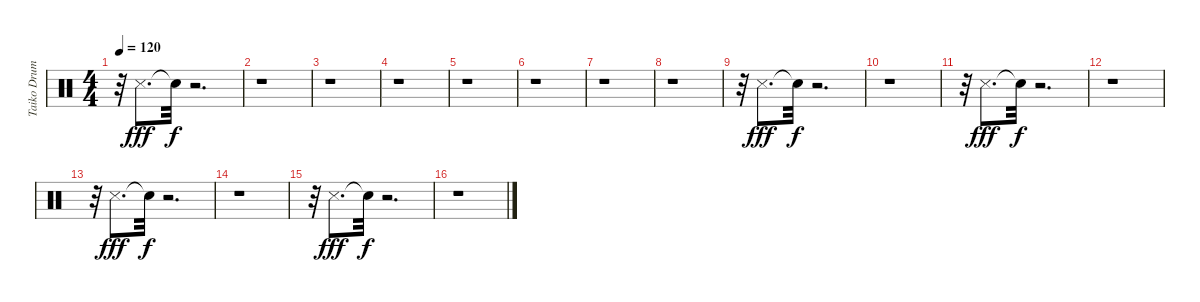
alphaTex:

\track ("Taiko Drum" "Taiko Drum") {instrument percussion}
\staff {score}
\articulation defaults
\ts (4 4)
\tempo 120
\clef neutral
\ks c
r.32{dy f} "Metronome (hit)".8{d dy fff} "Snare (hit)"{t}.32{dy f} r.2{d} |
r.1 |
r.1 |
r.1 |
r.1 |
r.1 |
r.1 |
r.1 |
r.32 "Metronome (hit)".8{d dy fff} "Snare (hit)"{t}.32{dy f} r.2{d} |
r.1 |
r.32 "Metronome (hit)".8{d dy fff} "Snare (hit)"{t}.32{dy f} r.2{d} |
r.1 |
r.32 "Metronome (hit)".8{d dy fff} "Snare (hit)"{t}.32{dy f} r.2{d} |
r.1 |
r.32 "Metronome (hit)".8{d dy fff} "Snare (hit)"{t}.32{dy f} r.2{d} |
r.1
